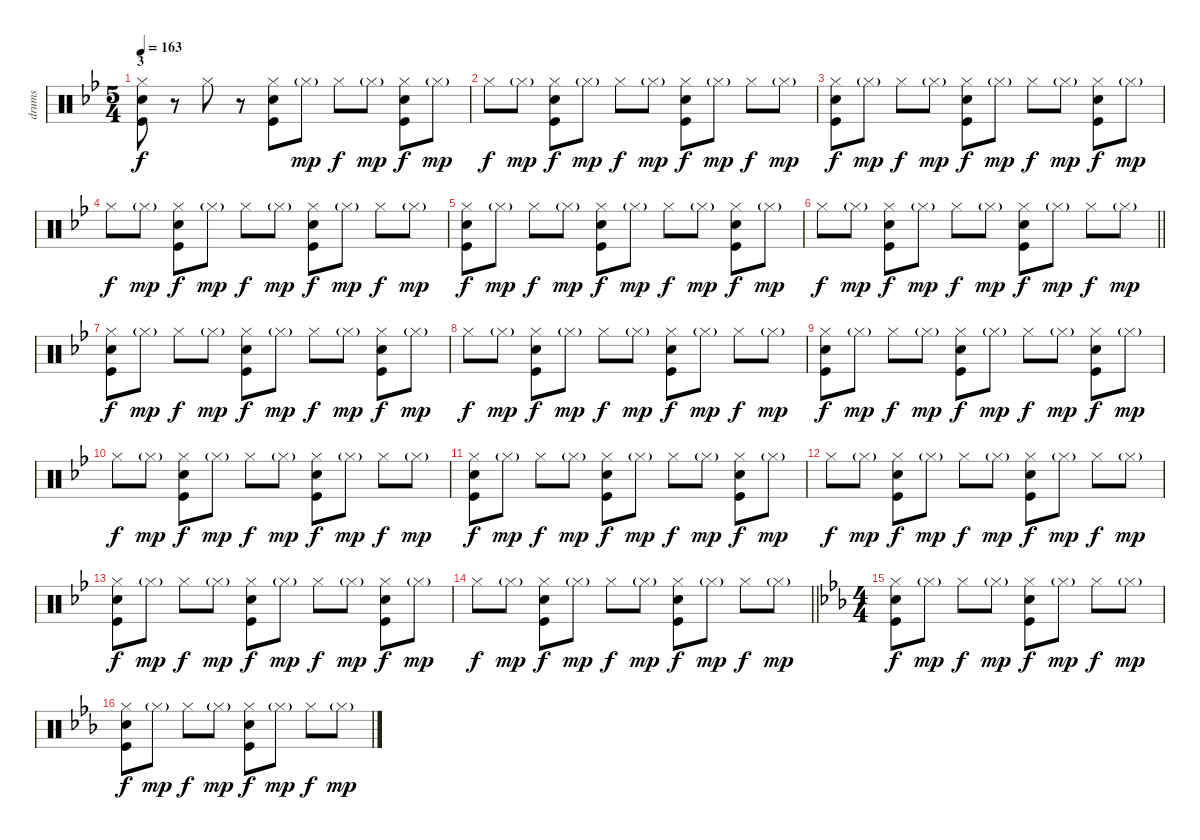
\track ("drums" "drums") {instrument percussion}
\staff {score}
\articulation defaults
\ts (5 4)
\section ("" "3")
\tempo 163
\clef neutral
\ks gminor
("Hi-Hat (closed)" "Snare (hit) 2" "Kick (hit)").8{dy f} r.8 "Hi-Hat (closed)".8 r.8 ("Hi-Hat (closed)" "Snare (hit) 2" "Kick (hit)").8 "Hi-Hat (closed)"{g}.8{dy mp} "Hi-Hat (closed)".8{dy f} "Hi-Hat (closed)"{g}.8{dy mp} ("Hi-Hat (closed)" "Snare (hit) 2" "Kick (hit)").8{dy f} "Hi-Hat (closed)"{g}.8{dy mp} |
"Hi-Hat (closed)".8{dy f} "Hi-Hat (closed)"{g}.8{dy mp} ("Hi-Hat (closed)" "Snare (hit) 2" "Kick (hit)").8{dy f} "Hi-Hat (closed)"{g}.8{dy mp} "Hi-Hat (closed)".8{dy f} "Hi-Hat (closed)"{g}.8{dy mp} ("Hi-Hat (closed)" "Snare (hit) 2" "Kick (hit)").8{dy f} "Hi-Hat (closed)"{g}.8{dy mp} "Hi-Hat (closed)".8{dy f} "Hi-Hat (closed)"{g}.8{dy mp} |
("Hi-Hat (closed)" "Snare (hit) 2" "Kick (hit)").8{dy f} "Hi-Hat (closed)"{g}.8{dy mp} "Hi-Hat (closed)".8{dy f} "Hi-Hat (closed)"{g}.8{dy mp} ("Hi-Hat (closed)" "Snare (hit) 2" "Kick (hit)").8{dy f} "Hi-Hat (closed)"{g}.8{dy mp} "Hi-Hat (closed)".8{dy f} "Hi-Hat (closed)"{g}.8{dy mp} ("Hi-Hat (closed)" "Snare (hit) 2" "Kick (hit)").8{dy f} "Hi-Hat (closed)"{g}.8{dy mp} |
"Hi-Hat (closed)".8{dy f} "Hi-Hat (closed)"{g}.8{dy mp} ("Hi-Hat (closed)" "Snare (hit) 2" "Kick (hit)").8{dy f} "Hi-Hat (closed)"{g}.8{dy mp} "Hi-Hat (closed)".8{dy f} "Hi-Hat (closed)"{g}.8{dy mp} ("Hi-Hat (closed)" "Snare (hit) 2" "Kick (hit)").8{dy f} "Hi-Hat (closed)"{g}.8{dy mp} "Hi-Hat (closed)".8{dy f} "Hi-Hat (closed)"{g}.8{dy mp} |
("Hi-Hat (closed)" "Snare (hit) 2" "Kick (hit)").8{dy f} "Hi-Hat (closed)"{g}.8{dy mp} "Hi-Hat (closed)".8{dy f} "Hi-Hat (closed)"{g}.8{dy mp} ("Hi-Hat (closed)" "Snare (hit) 2" "Kick (hit)").8{dy f} "Hi-Hat (closed)"{g}.8{dy mp} "Hi-Hat (closed)".8{dy f} "Hi-Hat (closed)"{g}.8{dy mp} ("Hi-Hat (closed)" "Snare (hit) 2" "Kick (hit)").8{dy f} "Hi-Hat (closed)"{g}.8{dy mp} |
\barLineRight lightlight "Hi-Hat (closed)".8{dy f} "Hi-Hat (closed)"{g}.8{dy mp}
("Hi-Hat (closed)" "Snare (hit) 2" "Kick (hit)").8{dy f} "Hi-Hat (closed)"{g}.8{dy mp} "Hi-Hat (closed)".8{dy f} "Hi-Hat (closed)"{g}.8{dy mp} ("Hi-Hat (closed)" "Snare (hit) 2" "Kick (hit)").8{dy f} "Hi-Hat (closed)"{g}.8{dy mp} "Hi-Hat (closed)".8{dy f} "Hi-Hat (closed)"{g}.8{dy mp} |
("Hi-Hat (closed)" "Snare (hit) 2" "Kick (hit)").8{dy f} "Hi-Hat (closed)"{g}.8{dy mp} "Hi-Hat (closed)".8{dy f} "Hi-Hat (closed)"{g}.8{dy mp} ("Hi-Hat (closed)" "Snare (hit) 2" "Kick (hit)").8{dy f} "Hi-Hat (closed)"{g}.8{dy mp} "Hi-Hat (closed)".8{dy f} "Hi-Hat (closed)"{g}.8{dy mp} ("Hi-Hat (closed)" "Snare (hit) 2" "Kick (hit)").8{dy f} "Hi-Hat (closed)"{g}.8{dy mp} |
"Hi-Hat (closed)".8{dy f} "Hi-Hat (closed)"{g}.8{dy mp} ("Hi-Hat (closed)" "Snare (hit) 2" "Kick (hit)").8{dy f} "Hi-Hat (closed)"{g}.8{dy mp} "Hi-Hat (closed)".8{dy f} "Hi-Hat (closed)"{g}.8{dy mp} ("Hi-Hat (closed)" "Snare (hit) 2" "Kick (hit)").8{dy f} "Hi-Hat (closed)"{g}.8{dy mp} "Hi-Hat (closed)".8{dy f} "Hi-Hat (closed)"{g}.8{dy mp} |
("Hi-Hat (closed)" "Snare (hit) 2" "Kick (hit)").8{dy f} "Hi-Hat (closed)"{g}.8{dy mp} "Hi-Hat (closed)".8{dy f} "Hi-Hat (closed)"{g}.8{dy mp} ("Hi-Hat (closed)" "Snare (hit) 2" "Kick (hit)").8{dy f} "Hi-Hat (closed)"{g}.8{dy mp} "Hi-Hat (closed)".8{dy f} "Hi-Hat (closed)"{g}.8{dy mp} ("Hi-Hat (closed)" "Snare (hit) 2" "Kick (hit)").8{dy f} "Hi-Hat (closed)"{g}.8{dy mp} |
"Hi-Hat (closed)".8{dy f} "Hi-Hat (closed)"{g}.8{dy mp} ("Hi-Hat (closed)" "Snare (hit) 2" "Kick (hit)").8{dy f} "Hi-Hat (closed)"{g}.8{dy mp} "Hi-Hat (closed)".8{dy f} "Hi-Hat (closed)"{g}.8{dy mp} ("Hi-Hat (closed)" "Snare (hit) 2" "Kick (hit)").8{dy f} "Hi-Hat (closed)"{g}.8{dy mp} "Hi-Hat (closed)".8{dy f} "Hi-Hat (closed)"{g}.8{dy mp} |
("Hi-Hat (closed)" "Snare (hit) 2" "Kick (hit)").8{dy f} "Hi-Hat (closed)"{g}.8{dy mp} "Hi-Hat (closed)".8{dy f} "Hi-Hat (closed)"{g}.8{dy mp} ("Hi-Hat (closed)" "Snare (hit) 2" "Kick (hit)").8{dy f} "Hi-Hat (closed)"{g}.8{dy mp} "Hi-Hat (closed)".8{dy f} "Hi-Hat (closed)"{g}.8{dy mp} ("Hi-Hat (closed)" "Snare (hit) 2" "Kick (hit)").8{dy f} "Hi-Hat (closed)"{g}.8{dy mp} |
"Hi-Hat (closed)".8{dy f} "Hi-Hat (closed)"{g}.8{dy mp} ("Hi-Hat (closed)" "Snare (hit) 2" "Kick (hit)").8{dy f} "Hi-Hat (closed)"{g}.8{dy mp} "Hi-Hat (closed)".8{dy f} "Hi-Hat (closed)"{g}.8{dy mp} ("Hi-Hat (closed)" "Snare (hit) 2" "Kick (hit)").8{dy f} "Hi-Hat (closed)"{g}.8{dy mp} "Hi-Hat (closed)".8{dy f} "Hi-Hat (closed)"{g}.8{dy mp} |
("Hi-Hat (closed)" "Snare (hit) 2" "Kick (hit)").8{dy f} "Hi-Hat (closed)"{g}.8{dy mp} "Hi-Hat (closed)".8{dy f} "Hi-Hat (closed)"{g}.8{dy mp} ("Hi-Hat (closed)" "Snare (hit) 2" "Kick (hit)").8{dy f} "Hi-Hat (closed)"{g}.8{dy mp} "Hi-Hat (closed)".8{dy f} "Hi-Hat (closed)"{g}.8{dy mp} ("Hi-Hat (closed)" "Snare (hit) 2" "Kick (hit)").8{dy f} "Hi-Hat (closed)"{g}.8{dy mp} |
\barLineRight lightlight "Hi-Hat (closed)".8{dy f} "Hi-Hat (closed)"{g}.8{dy mp}
("Hi-Hat (closed)" "Snare (hit) 2" "Kick (hit)").8{dy f} "Hi-Hat (closed)"{g}.8{dy mp} "Hi-Hat (closed)".8{dy f} "Hi-Hat (closed)"{g}.8{dy mp} ("Hi-Hat (closed)" "Snare (hit) 2" "Kick (hit)").8{dy f} "Hi-Hat (closed)"{g}.8{dy mp} "Hi-Hat (closed)".8{dy f} "Hi-Hat (closed)"{g}.8{dy mp} |
\ts (4 4)
\ks cminor
("Hi-Hat (closed)" "Snare (hit) 2" "Kick (hit)").8{dy f} "Hi-Hat (closed)"{g}.8{dy mp} "Hi-Hat (closed)".8{dy f} "Hi-Hat (closed)"{g}.8{dy mp} ("Hi-Hat (closed)" "Snare (hit) 2" "Kick (hit)").8{dy f} "Hi-Hat (closed)"{g}.8{dy mp} "Hi-Hat (closed)".8{dy f} "Hi-Hat (closed)"{g}.8{dy mp} |
("Hi-Hat (closed)" "Snare (hit) 2" "Kick (hit)").8{dy f} "Hi-Hat (closed)"{g}.8{dy mp} "Hi-Hat (closed)".8{dy f} "Hi-Hat (closed)"{g}.8{dy mp} ("Hi-Hat (closed)" "Snare (hit) 2" "Kick (hit)").8{dy f} "Hi-Hat (closed)"{g}.8{dy mp} "Hi-Hat (closed)".8{dy f} "Hi-Hat (closed)"{g}.8{dy mp}
